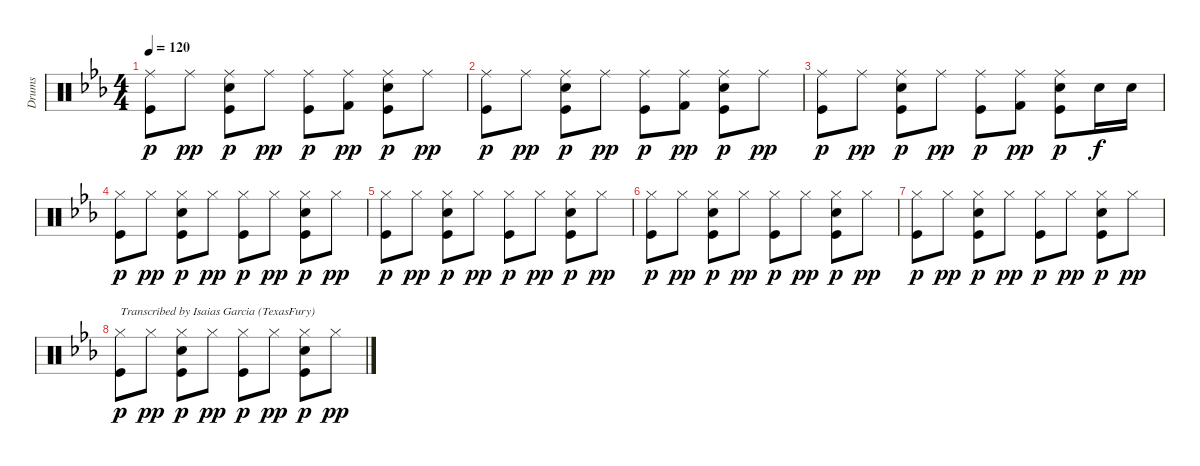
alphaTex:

\track ("Drums" "Drums") {instrument percussion}
\staff {score}
\articulation defaults
\ts (4 4)
\tempo 120
\clef neutral
\ks cminor
("Ride (middle)" "Kick (hit)").8{dy p} "Ride (middle)".8{dy pp} ("Ride (middle)" "Electric Snare (hit)" "Kick (hit)").8{dy p} "Ride (middle)".8{dy pp} ("Ride (middle)" "Kick (hit)").8{dy p} ("Kick (hit) 2" "Ride (middle)").8{dy pp} ("Ride (middle)" "Electric Snare (hit)" "Kick (hit)").8{dy p} "Ride (middle)".8{dy pp} |
("Ride (middle)" "Kick (hit)").8{dy p} "Ride (middle)".8{dy pp} ("Ride (middle)" "Electric Snare (hit)" "Kick (hit)").8{dy p} "Ride (middle)".8{dy pp} ("Ride (middle)" "Kick (hit)").8{dy p} ("Kick (hit) 2" "Ride (middle)").8{dy pp} ("Ride (middle)" "Electric Snare (hit)" "Kick (hit)").8{dy p} "Ride (middle)".8{dy pp} |
("Ride (middle)" "Kick (hit)").8{dy p} "Ride (middle)".8{dy pp} ("Ride (middle)" "Electric Snare (hit)" "Kick (hit)").8{dy p} "Ride (middle)".8{dy pp} ("Ride (middle)" "Kick (hit)").8{dy p} ("Kick (hit) 2" "Ride (middle)").8{dy pp} ("Ride (middle)" "Electric Snare (hit)" "Kick (hit)").8{dy p} "Electric Snare (hit)".16{dy f} "Electric Snare (hit)".16 |
("Hi-Hat (closed)" "Kick (hit)").8{dy p volume 7} "Hi-Hat (closed)".8{dy pp} ("Hi-Hat (closed)" "Electric Snare (hit)" "Kick (hit)").8{dy p} "Hi-Hat (closed)".8{dy pp} ("Hi-Hat (closed)" "Kick (hit)").8{dy p} "Hi-Hat (closed)".8{dy pp} ("Hi-Hat (closed)" "Electric Snare (hit)" "Kick (hit)").8{dy p} "Hi-Hat (closed)".8{dy pp} |
("Hi-Hat (closed)" "Kick (hit)").8{dy p} "Hi-Hat (closed)".8{dy pp} ("Hi-Hat (closed)" "Electric Snare (hit)" "Kick (hit)").8{dy p} "Hi-Hat (closed)".8{dy pp} ("Hi-Hat (closed)" "Kick (hit)").8{dy p} "Hi-Hat (closed)".8{dy pp} ("Hi-Hat (closed)" "Electric Snare (hit)" "Kick (hit)").8{dy p} "Hi-Hat (closed)".8{dy pp} |
("Hi-Hat (closed)" "Kick (hit)").8{dy p} "Hi-Hat (closed)".8{dy pp} ("Hi-Hat (closed)" "Electric Snare (hit)" "Kick (hit)").8{dy p} "Hi-Hat (closed)".8{dy pp} ("Hi-Hat (closed)" "Kick (hit)").8{dy p volume 0} "Hi-Hat (closed)".8{dy pp} ("Hi-Hat (closed)" "Electric Snare (hit)" "Kick (hit)").8{dy p} "Hi-Hat (closed)".8{dy pp} |
("Hi-Hat (closed)" "Kick (hit)").8{dy p} "Hi-Hat (closed)".8{dy pp} ("Hi-Hat (closed)" "Electric Snare (hit)" "Kick (hit)").8{dy p} "Hi-Hat (closed)".8{dy pp} ("Hi-Hat (closed)" "Kick (hit)").8{dy p} "Hi-Hat (closed)".8{dy pp} ("Hi-Hat (closed)" "Electric Snare (hit)" "Kick (hit)").8{dy p} "Hi-Hat (closed)".8{dy pp} |
("Hi-Hat (closed)" "Kick (hit)").8{txt "Transcribed by Isaias Garcia (TexasFury)" dy p} "Hi-Hat (closed)".8{dy pp} ("Hi-Hat (closed)" "Electric Snare (hit)" "Kick (hit)").8{dy p} "Hi-Hat (closed)".8{dy pp} ("Hi-Hat (closed)" "Kick (hit)").8{dy p} "Hi-Hat (closed)".8{dy pp} ("Hi-Hat (closed)" "Electric Snare (hit)" "Kick (hit)").8{dy p} "Hi-Hat (closed)".8{dy pp}
